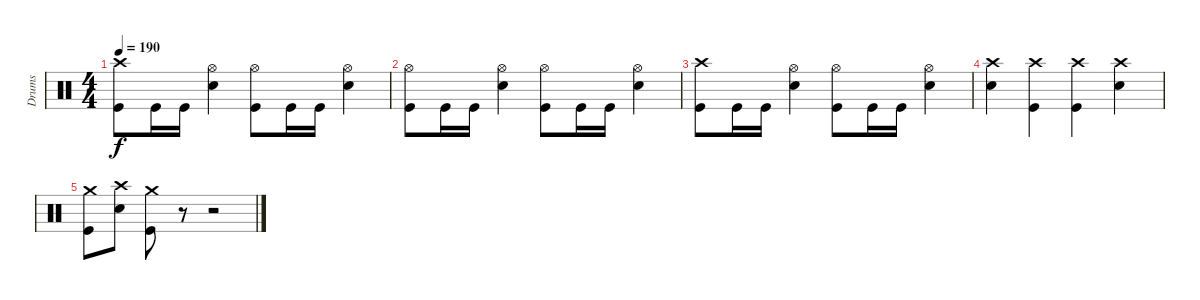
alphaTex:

\track ("Drums" "Drums") {instrument percussion}
\staff {score}
\articulation defaults
\ts (4 4)
\tempo 190
\clef neutral
\ks c
("Crash high (hit)" "Kick (hit)").8{dy f} "Kick (hit)".16 "Kick (hit)".16 ("Hi-Hat (open)" "Snare (hit) 2").4 ("Hi-Hat (open)" "Kick (hit)").8 "Kick (hit)".16 "Kick (hit)".16 ("Hi-Hat (open)" "Snare (hit) 2").4 |
("Hi-Hat (open)" "Kick (hit)").8 "Kick (hit)".16 "Kick (hit)".16 ("Hi-Hat (open)" "Snare (hit) 2").4 ("Hi-Hat (open)" "Kick (hit)").8 "Kick (hit)".16 "Kick (hit)".16 ("Hi-Hat (open)" "Snare (hit) 2").4 |
("Crash high (hit)" "Kick (hit)").8 "Kick (hit)".16 "Kick (hit)".16 ("Hi-Hat (open)" "Snare (hit) 2").4 ("Hi-Hat (open)" "Kick (hit)").8 "Kick (hit)".16 "Kick (hit)".16 ("Hi-Hat (open)" "Snare (hit) 2").4 |
("Crash high (hit)" "Snare (hit) 2").4 ("Crash high (hit)" "Kick (hit)").4 ("Crash high (hit)" "Kick (hit)").4 ("Crash high (hit)" "Snare (hit) 2").4 |
("Crash medium (hit)" "Kick (hit)").8 ("Crash high (hit)" "Snare (hit) 2").8 ("Crash medium (hit)" "Kick (hit)").8 r.8 r.2
